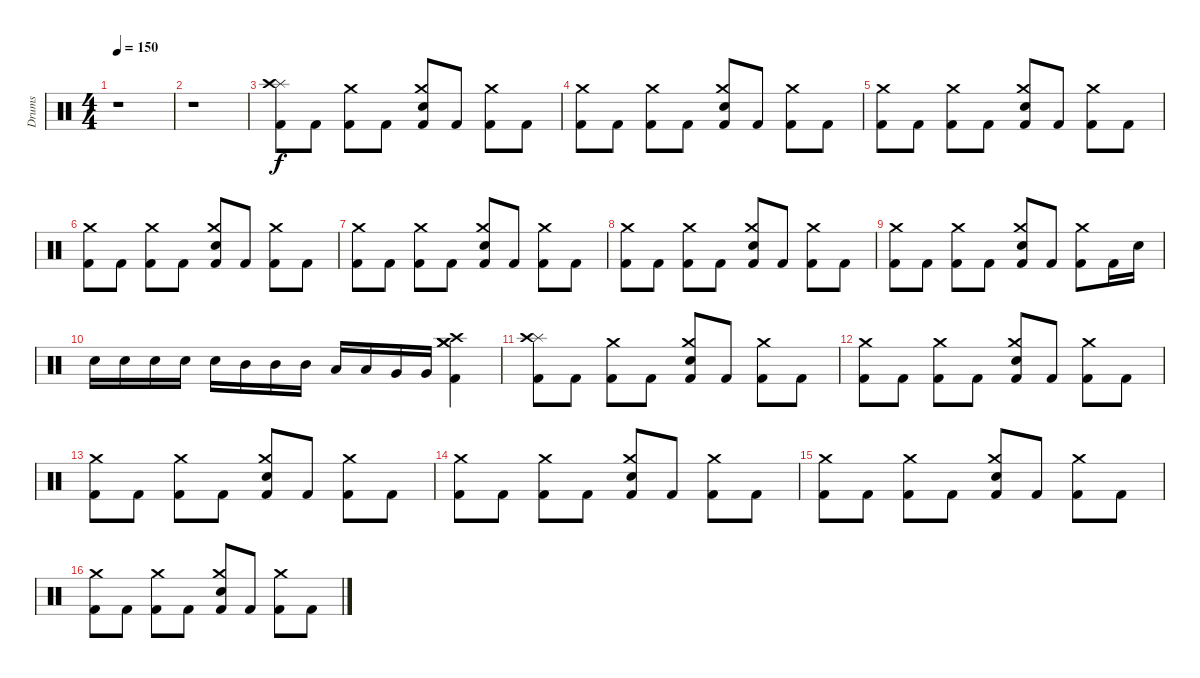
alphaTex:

\track ("Drums" "Drums") {instrument percussion}
\staff {score}
\articulation defaults
\ts (4 4)
\tempo 150
\clef neutral
\ks c
r.1{dy f} |
r.1 |
("Splash (hit)" "Crash high (hit)" "Kick (hit) 2").8 "Kick (hit) 2".8 ("Crash medium (hit)" "Kick (hit) 2").8 "Kick (hit) 2".8 ("Crash medium (hit)" "Snare (hit) 2" "Kick (hit) 2").8 "Kick (hit) 2".8 ("Crash medium (hit)" "Kick (hit) 2").8 "Kick (hit) 2".8 |
("Crash medium (hit)" "Kick (hit) 2").8 "Kick (hit) 2".8 ("Crash medium (hit)" "Kick (hit) 2").8 "Kick (hit) 2".8 ("Crash medium (hit)" "Snare (hit) 2" "Kick (hit) 2").8 "Kick (hit) 2".8 ("Crash medium (hit)" "Kick (hit) 2").8 "Kick (hit) 2".8 |
("Crash medium (hit)" "Kick (hit) 2").8 "Kick (hit) 2".8 ("Crash medium (hit)" "Kick (hit) 2").8 "Kick (hit) 2".8 ("Crash medium (hit)" "Snare (hit) 2" "Kick (hit) 2").8 "Kick (hit) 2".8 ("Crash medium (hit)" "Kick (hit) 2").8 "Kick (hit) 2".8 |
("Crash medium (hit)" "Kick (hit) 2").8 "Kick (hit) 2".8 ("Crash medium (hit)" "Kick (hit) 2").8 "Kick (hit) 2".8 ("Crash medium (hit)" "Snare (hit) 2" "Kick (hit) 2").8 "Kick (hit) 2".8 ("Crash medium (hit)" "Kick (hit) 2").8 "Kick (hit) 2".8 |
("Crash medium (hit)" "Kick (hit) 2").8 "Kick (hit) 2".8 ("Crash medium (hit)" "Kick (hit) 2").8 "Kick (hit) 2".8 ("Crash medium (hit)" "Snare (hit) 2" "Kick (hit) 2").8 "Kick (hit) 2".8 ("Crash medium (hit)" "Kick (hit) 2").8 "Kick (hit) 2".8 |
("Crash medium (hit)" "Kick (hit) 2").8 "Kick (hit) 2".8 ("Crash medium (hit)" "Kick (hit) 2").8 "Kick (hit) 2".8 ("Crash medium (hit)" "Snare (hit) 2" "Kick (hit) 2").8 "Kick (hit) 2".8 ("Crash medium (hit)" "Kick (hit) 2").8 "Kick (hit) 2".8 |
("Crash medium (hit)" "Kick (hit) 2").8 "Kick (hit) 2".8 ("Crash medium (hit)" "Kick (hit) 2").8 "Kick (hit) 2".8 ("Crash medium (hit)" "Snare (hit) 2" "Kick (hit) 2").8 "Kick (hit) 2".8 ("Crash medium (hit)" "Kick (hit) 2").8 "Kick (hit) 2".16 "Snare (hit) 2".16 |
"Snare (hit) 2".16 "Snare (hit) 2".16 "Snare (hit) 2".16 "Snare (hit) 2".16 "Snare (hit) 2".16 "Mid Tom (hit)".16 "Mid Tom (hit)".16 "Mid Tom (hit)".16 "Low Tom (hit)".16 "Low Tom (hit)".16 "Very Low Tom (hit)".16 "Very Low Tom (hit)".16 ("Crash medium (hit)" "Crash medium (hit)" "Crash high (hit)" "Kick (hit) 2").4 |
("Splash (hit)" "Crash high (hit)" "Kick (hit) 2").8 "Kick (hit) 2".8 ("Crash medium (hit)" "Kick (hit) 2").8 "Kick (hit) 2".8 ("Crash medium (hit)" "Snare (hit) 2" "Kick (hit) 2").8 "Kick (hit) 2".8 ("Crash medium (hit)" "Kick (hit) 2").8 "Kick (hit) 2".8 |
("Crash medium (hit)" "Kick (hit) 2").8 "Kick (hit) 2".8 ("Crash medium (hit)" "Kick (hit) 2").8 "Kick (hit) 2".8 ("Crash medium (hit)" "Snare (hit) 2" "Kick (hit) 2").8 "Kick (hit) 2".8 ("Crash medium (hit)" "Kick (hit) 2").8 "Kick (hit) 2".8 |
("Crash medium (hit)" "Kick (hit) 2").8 "Kick (hit) 2".8 ("Crash medium (hit)" "Kick (hit) 2").8 "Kick (hit) 2".8 ("Crash medium (hit)" "Snare (hit) 2" "Kick (hit) 2").8 "Kick (hit) 2".8 ("Crash medium (hit)" "Kick (hit) 2").8 "Kick (hit) 2".8 |
("Crash medium (hit)" "Kick (hit) 2").8 "Kick (hit) 2".8 ("Crash medium (hit)" "Kick (hit) 2").8 "Kick (hit) 2".8 ("Crash medium (hit)" "Snare (hit) 2" "Kick (hit) 2").8 "Kick (hit) 2".8 ("Crash medium (hit)" "Kick (hit) 2").8 "Kick (hit) 2".8 |
("Crash medium (hit)" "Kick (hit) 2").8 "Kick (hit) 2".8 ("Crash medium (hit)" "Kick (hit) 2").8 "Kick (hit) 2".8 ("Crash medium (hit)" "Snare (hit) 2" "Kick (hit) 2").8 "Kick (hit) 2".8 ("Crash medium (hit)" "Kick (hit) 2").8 "Kick (hit) 2".8 |
("Crash medium (hit)" "Kick (hit) 2").8 "Kick (hit) 2".8 ("Crash medium (hit)" "Kick (hit) 2").8 "Kick (hit) 2".8 ("Crash medium (hit)" "Snare (hit) 2" "Kick (hit) 2").8 "Kick (hit) 2".8 ("Crash medium (hit)" "Kick (hit) 2").8 "Kick (hit) 2".8
